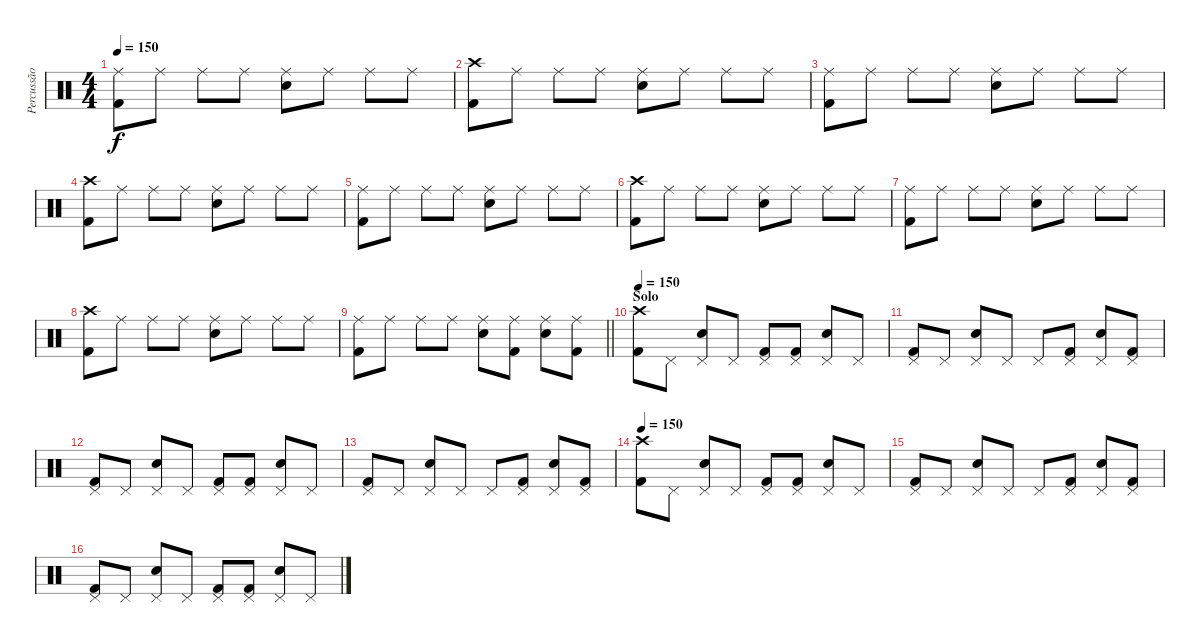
\track ("Percussão" "Percussão") {instrument percussion}
\staff {score}
\articulation defaults
\ts (4 4)
\tempo 150
\clef neutral
\ks c
("Ride (middle)" "Kick (hit) 2").8{dy f} "Ride (middle)".8 "Ride (middle)".8 "Ride (middle)".8 ("Ride (middle)" "Snare (hit) 2").8 "Ride (middle)".8 "Ride (middle)".8 "Ride (middle)".8 |
("Crash high (hit)" "Kick (hit) 2").8 "Ride (middle)".8 "Ride (middle)".8 "Ride (middle)".8 ("Ride (middle)" "Snare (hit) 2").8 "Ride (middle)".8 "Ride (middle)".8 "Ride (middle)".8 |
("Ride (middle)" "Kick (hit) 2").8 "Ride (middle)".8 "Ride (middle)".8 "Ride (middle)".8 ("Ride (middle)" "Snare (hit) 2").8 "Ride (middle)".8 "Ride (middle)".8 "Ride (middle)".8 |
("Crash high (hit)" "Kick (hit) 2").8 "Ride (middle)".8 "Ride (middle)".8 "Ride (middle)".8 ("Ride (middle)" "Snare (hit) 2").8 "Ride (middle)".8 "Ride (middle)".8 "Ride (middle)".8 |
("Ride (middle)" "Kick (hit) 2").8 "Ride (middle)".8 "Ride (middle)".8 "Ride (middle)".8 ("Ride (middle)" "Snare (hit) 2").8 "Ride (middle)".8 "Ride (middle)".8 "Ride (middle)".8 |
("Crash high (hit)" "Kick (hit) 2").8 "Ride (middle)".8 "Ride (middle)".8 "Ride (middle)".8 ("Ride (middle)" "Snare (hit) 2").8 "Ride (middle)".8 "Ride (middle)".8 "Ride (middle)".8 |
("Ride (middle)" "Kick (hit) 2").8 "Ride (middle)".8 "Ride (middle)".8 "Ride (middle)".8 ("Ride (middle)" "Snare (hit) 2").8 "Ride (middle)".8 "Ride (middle)".8 "Ride (middle)".8 |
("Crash high (hit)" "Kick (hit) 2").8 "Ride (middle)".8 "Ride (middle)".8 "Ride (middle)".8 ("Ride (middle)" "Snare (hit) 2").8 "Ride (middle)".8 "Ride (middle)".8 "Ride (middle)".8 |
\barLineRight lightlight
("Ride (middle)" "Kick (hit) 2").8 "Ride (middle)".8 "Ride (middle)".8 "Ride (middle)".8 ("Ride (middle)" "Snare (hit) 2").8 ("Ride (middle)" "Kick (hit) 2").8 ("Ride (middle)" "Snare (hit) 2").8 ("Ride (middle)" "Kick (hit) 2").8 |
\section ("" "Solo")
\tempo 150
("Crash high (hit)" "Kick (hit) 2").8 "Pedal Hi-Hat (hit)".8 ("Pedal Hi-Hat (hit)" "Snare (hit) 2").8 "Pedal Hi-Hat (hit)".8 ("Pedal Hi-Hat (hit)" "Kick (hit) 2").8 ("Pedal Hi-Hat (hit)" "Kick (hit) 2").8 ("Pedal Hi-Hat (hit)" "Snare (hit) 2").8 "Pedal Hi-Hat (hit)".8 |
("Pedal Hi-Hat (hit)" "Kick (hit) 2").8 "Pedal Hi-Hat (hit)".8 ("Pedal Hi-Hat (hit)" "Snare (hit) 2").8 "Pedal Hi-Hat (hit)".8 "Pedal Hi-Hat (hit)".8 ("Pedal Hi-Hat (hit)" "Kick (hit) 2").8 ("Pedal Hi-Hat (hit)" "Snare (hit) 2").8 ("Pedal Hi-Hat (hit)" "Kick (hit) 2").8 |
("Pedal Hi-Hat (hit)" "Kick (hit) 2").8 "Pedal Hi-Hat (hit)".8 ("Pedal Hi-Hat (hit)" "Snare (hit) 2").8 "Pedal Hi-Hat (hit)".8 ("Pedal Hi-Hat (hit)" "Kick (hit) 2").8 ("Pedal Hi-Hat (hit)" "Kick (hit) 2").8 ("Pedal Hi-Hat (hit)" "Snare (hit) 2").8 "Pedal Hi-Hat (hit)".8 |
("Pedal Hi-Hat (hit)" "Kick (hit) 2").8 "Pedal Hi-Hat (hit)".8 ("Pedal Hi-Hat (hit)" "Snare (hit) 2").8 "Pedal Hi-Hat (hit)".8 "Pedal Hi-Hat (hit)".8 ("Pedal Hi-Hat (hit)" "Kick (hit) 2").8 ("Pedal Hi-Hat (hit)" "Snare (hit) 2").8 ("Pedal Hi-Hat (hit)" "Kick (hit) 2").8 |
\tempo 150
("Crash high (hit)" "Kick (hit) 2").8 "Pedal Hi-Hat (hit)".8 ("Pedal Hi-Hat (hit)" "Snare (hit) 2").8 "Pedal Hi-Hat (hit)".8 ("Pedal Hi-Hat (hit)" "Kick (hit) 2").8 ("Pedal Hi-Hat (hit)" "Kick (hit) 2").8 ("Pedal Hi-Hat (hit)" "Snare (hit) 2").8 "Pedal Hi-Hat (hit)".8 |
("Pedal Hi-Hat (hit)" "Kick (hit) 2").8 "Pedal Hi-Hat (hit)".8 ("Pedal Hi-Hat (hit)" "Snare (hit) 2").8 "Pedal Hi-Hat (hit)".8 "Pedal Hi-Hat (hit)".8 ("Pedal Hi-Hat (hit)" "Kick (hit) 2").8 ("Pedal Hi-Hat (hit)" "Snare (hit) 2").8 ("Pedal Hi-Hat (hit)" "Kick (hit) 2").8 |
("Pedal Hi-Hat (hit)" "Kick (hit) 2").8 "Pedal Hi-Hat (hit)".8 ("Pedal Hi-Hat (hit)" "Snare (hit) 2").8 "Pedal Hi-Hat (hit)".8 ("Pedal Hi-Hat (hit)" "Kick (hit) 2").8 ("Pedal Hi-Hat (hit)" "Kick (hit) 2").8 ("Pedal Hi-Hat (hit)" "Snare (hit) 2").8 "Pedal Hi-Hat (hit)".8
